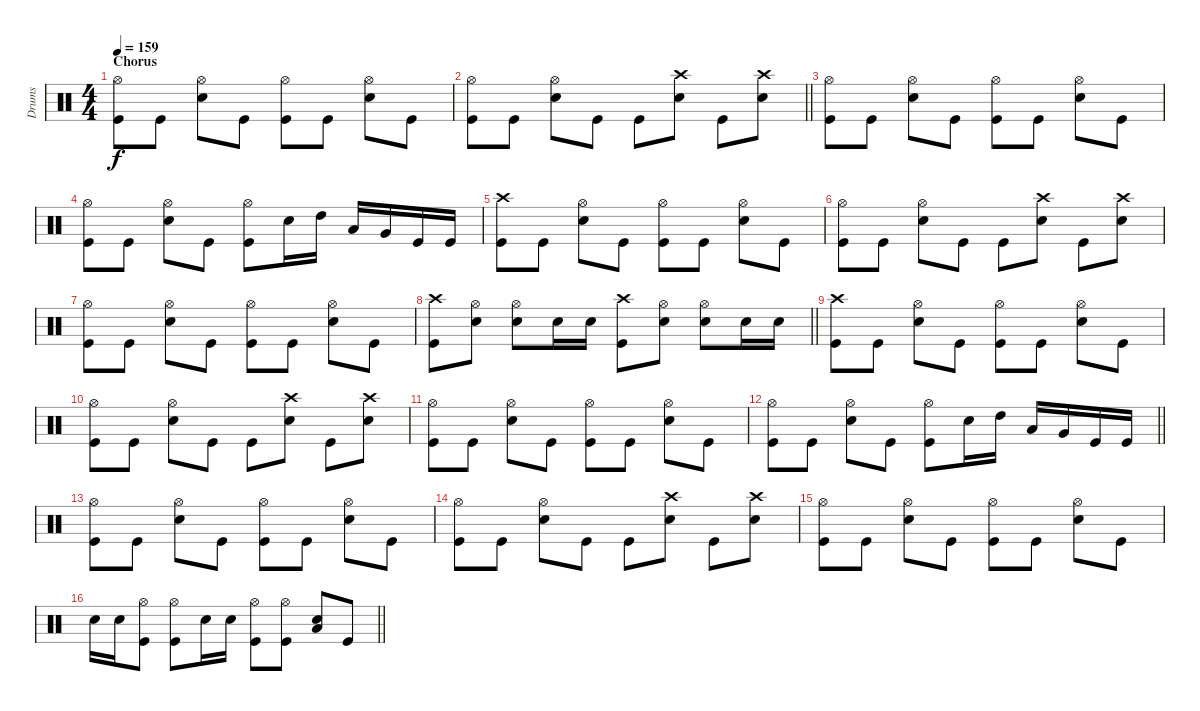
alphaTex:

\track ("Drums" "Drums") {instrument percussion}
\staff {score}
\articulation defaults
\ts (4 4)
\section ("" "Chorus")
\tempo 159
\clef neutral
\ks c
("Hi-Hat (open)" "Kick (hit)").8{dy f} "Kick (hit)".8 ("Hi-Hat (open)" "Snare (hit) 2").8 "Kick (hit)".8 ("Hi-Hat (open)" "Kick (hit)").8 "Kick (hit)".8 ("Hi-Hat (open)" "Snare (hit) 2").8 "Kick (hit)".8 |
\barLineRight lightlight
("Hi-Hat (open)" "Kick (hit)").8 "Kick (hit)".8 ("Hi-Hat (open)" "Snare (hit) 2").8 "Kick (hit)".8 "Kick (hit)".8 ("Crash high (hit)" "Snare (hit) 2").8 "Kick (hit)".8 ("Crash high (hit)" "Snare (hit) 2").8 |
("Hi-Hat (open)" "Kick (hit)").8 "Kick (hit)".8 ("Hi-Hat (open)" "Snare (hit) 2").8 "Kick (hit)".8 ("Hi-Hat (open)" "Kick (hit)").8 "Kick (hit)".8 ("Hi-Hat (open)" "Snare (hit) 2").8 "Kick (hit)".8 |
("Hi-Hat (open)" "Kick (hit)").8 "Kick (hit)".8 ("Hi-Hat (open)" "Snare (hit) 2").8 "Kick (hit)".8 ("Hi-Hat (open)" "Kick (hit)").8 "Snare (hit) 2".16 "High Tom (hit)".16 "Low Tom (hit)".16 "Very Low Tom (hit)".16 "Kick (hit)".16 "Kick (hit)".16 |
("Crash high (hit)" "Kick (hit)").8 "Kick (hit)".8 ("Hi-Hat (open)" "Snare (hit) 2").8 "Kick (hit)".8 ("Hi-Hat (open)" "Kick (hit)").8 "Kick (hit)".8 ("Hi-Hat (open)" "Snare (hit) 2").8 "Kick (hit)".8 |
("Hi-Hat (open)" "Kick (hit)").8 "Kick (hit)".8 ("Hi-Hat (open)" "Snare (hit) 2").8 "Kick (hit)".8 "Kick (hit)".8 ("Crash high (hit)" "Snare (hit) 2").8 "Kick (hit)".8 ("Crash high (hit)" "Snare (hit) 2").8 |
("Hi-Hat (open)" "Kick (hit)").8 "Kick (hit)".8 ("Hi-Hat (open)" "Snare (hit) 2").8 "Kick (hit)".8 ("Hi-Hat (open)" "Kick (hit)").8 "Kick (hit)".8 ("Hi-Hat (open)" "Snare (hit) 2").8 "Kick (hit)".8 |
\barLineRight lightlight
("Crash high (hit)" "Kick (hit)").8 ("Hi-Hat (open)" "Snare (hit) 2").8 ("Hi-Hat (open)" "Snare (hit) 2").8 "Snare (hit) 2".16 "Snare (hit) 2".16 ("Crash high (hit)" "Kick (hit)").8 ("Hi-Hat (open)" "Snare (hit) 2").8 ("Hi-Hat (open)" "Snare (hit) 2").8 "Snare (hit) 2".16 "Snare (hit) 2".16 |
\section ("" "")
("Crash high (hit)" "Kick (hit)").8 "Kick (hit)".8 ("Hi-Hat (open)" "Snare (hit) 2").8 "Kick (hit)".8 ("Hi-Hat (open)" "Kick (hit)").8 "Kick (hit)".8 ("Hi-Hat (open)" "Snare (hit) 2").8 "Kick (hit)".8 |
("Hi-Hat (open)" "Kick (hit)").8 "Kick (hit)".8 ("Hi-Hat (open)" "Snare (hit) 2").8 "Kick (hit)".8 "Kick (hit)".8 ("Crash high (hit)" "Snare (hit) 2").8 "Kick (hit)".8 ("Crash high (hit)" "Snare (hit) 2").8 |
("Hi-Hat (open)" "Kick (hit)").8 "Kick (hit)".8 ("Hi-Hat (open)" "Snare (hit) 2").8 "Kick (hit)".8 ("Hi-Hat (open)" "Kick (hit)").8 "Kick (hit)".8 ("Hi-Hat (open)" "Snare (hit) 2").8 "Kick (hit)".8 |
\barLineRight lightlight
("Hi-Hat (open)" "Kick (hit)").8 "Kick (hit)".8 ("Hi-Hat (open)" "Snare (hit) 2").8 "Kick (hit)".8 ("Hi-Hat (open)" "Kick (hit)").8 "Snare (hit) 2".16 "High Tom (hit)".16 "Low Tom (hit)".16 "Very Low Tom (hit)".16 "Kick (hit)".16 "Kick (hit)".16 |
("Hi-Hat (open)" "Kick (hit)").8 "Kick (hit)".8 ("Hi-Hat (open)" "Snare (hit) 2").8 "Kick (hit)".8 ("Hi-Hat (open)" "Kick (hit)").8 "Kick (hit)".8 ("Hi-Hat (open)" "Snare (hit) 2").8 "Kick (hit)".8 |
("Hi-Hat (open)" "Kick (hit)").8 "Kick (hit)".8 ("Hi-Hat (open)" "Snare (hit) 2").8 "Kick (hit)".8 "Kick (hit)".8 ("Crash high (hit)" "Snare (hit) 2").8 "Kick (hit)".8 ("Crash high (hit)" "Snare (hit) 2").8 |
("Hi-Hat (open)" "Kick (hit)").8 "Kick (hit)".8 ("Hi-Hat (open)" "Snare (hit) 2").8 "Kick (hit)".8 ("Hi-Hat (open)" "Kick (hit)").8 "Kick (hit)".8 ("Hi-Hat (open)" "Snare (hit) 2").8 "Kick (hit)".8 |
\barLineRight lightlight "Snare (hit) 2".16 "Snare (hit) 2".16
("Hi-Hat (open)" "Kick (hit)").8 ("Hi-Hat (open)" "Kick (hit)").8 "Snare (hit) 2".16 "Snare (hit) 2".16 ("Hi-Hat (open)" "Kick (hit)").8 ("Hi-Hat (open)" "Kick (hit)").8 ("Low Tom (hit)" "Snare (hit) 2").8 "Kick (hit)".8
